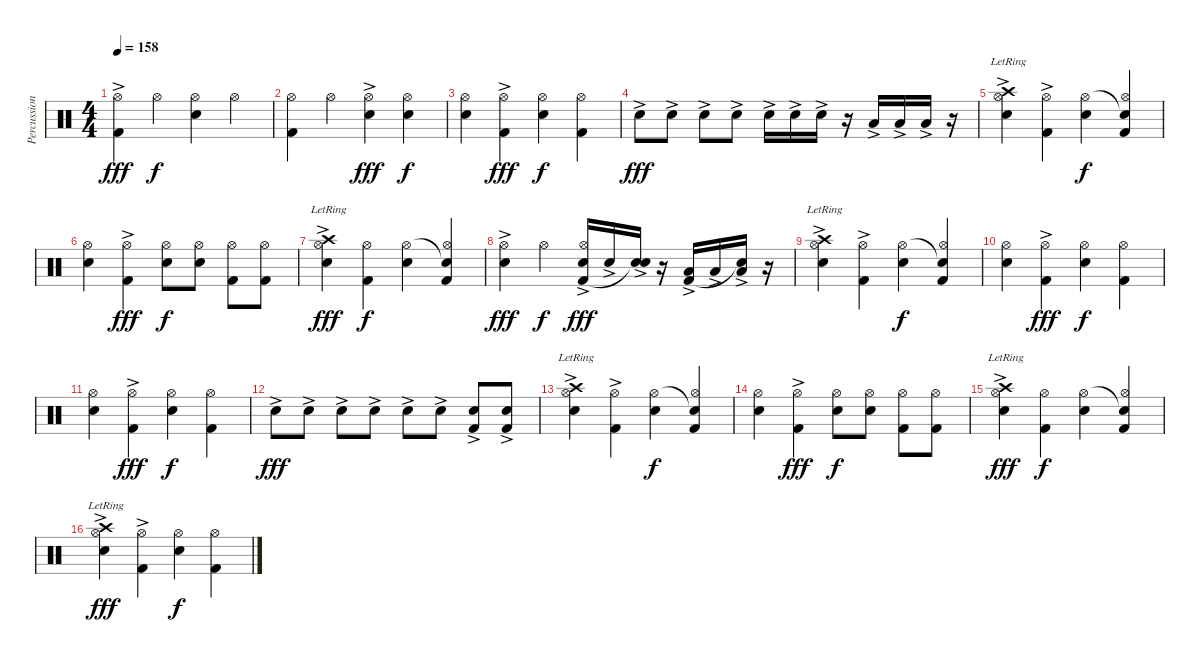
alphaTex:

\track ("Percussion" "Percussion") {instrument percussion}
\staff {score}
\articulation defaults
\ts (4 4)
\tempo 158
\clef neutral
\ks c
("Kick (hit) 2"{ac} "Hi-Hat (open)").4{dy fff} "Hi-Hat (open)".4{dy f} ("Snare (hit) 2" "Hi-Hat (open)").4 "Hi-Hat (open)".4 |
("Kick (hit) 2" "Hi-Hat (open)").4 "Hi-Hat (open)".4 ("Snare (hit) 2"{ac} "Hi-Hat (open)").4{dy fff} ("Snare (hit) 2" "Hi-Hat (open)").4{dy f} |
("Snare (hit) 2" "Hi-Hat (open)").4 ("Kick (hit) 2"{ac} "Hi-Hat (open)").4{dy fff} ("Snare (hit) 2" "Hi-Hat (open)").4{dy f} ("Kick (hit) 2" "Hi-Hat (open)").4 |
"Snare (hit) 2"{ac}.8{dy fff} "Snare (hit) 2"{ac}.8 "Snare (hit) 2"{ac}.8 "Snare (hit) 2"{ac}.8 "Electric Snare (hit)"{ac}.16 "Electric Snare (hit)"{ac}.16 "Electric Snare (hit)"{ac}.16 r.16 "Low Floor Tom (hit)"{ac}.16 "Low Floor Tom (hit)"{ac}.16 "Low Floor Tom (hit)"{ac}.16 r.16 |
("Snare (hit) 2" "Crash high (hit)"{ac lr} "Hi-Hat (open)").4 ("Kick (hit) 2"{ac} "Hi-Hat (open)").4 ("Snare (hit) 2" "Hi-Hat (open)").4{dy f} ("Kick (hit) 2" "Snare (hit)"{t} "Hi-Hat (open)").4 |
("Snare (hit) 2" "Hi-Hat (open)").4 ("Kick (hit) 2"{ac} "Hi-Hat (open)").4{dy fff} ("Snare (hit) 2" "Hi-Hat (open)").8{dy f} ("Snare (hit) 2" "Hi-Hat (open)").8 ("Kick (hit) 2" "Hi-Hat (open)").8 ("Kick (hit) 2" "Hi-Hat (open)").8 |
("Snare (hit) 2"{ac} "Crash high (hit)"{ac lr} "Hi-Hat (open)").4{dy fff} ("Kick (hit) 2" "Hi-Hat (open)").4{dy f} ("Snare (hit) 2" "Hi-Hat (open)").4 ("Kick (hit) 2" "Snare (hit)"{t} "Hi-Hat (open)").4 |
("Snare (hit) 2"{ac} "Hi-Hat (open)").4{dy fff} "Hi-Hat (open)".4{dy f} ("Snare (hit) 2"{ac} "Kick (hit) 2" "Hi-Hat (open)").16{dy fff} "Snare (hit) 2"{ac}.16 ("Snare (hit) 2"{ac} "Snare (hit)"{t}).16 r.16 ("Low Floor Tom (hit)"{ac} "Kick (hit) 2").16 "Low Floor Tom (hit)"{ac}.16 ("Low Floor Tom (hit)"{ac} "Snare (hit)"{t}).16 r.16 |
("Snare (hit) 2" "Crash high (hit)"{ac lr} "Hi-Hat (open)").4 ("Kick (hit) 2"{ac} "Hi-Hat (open)").4 ("Snare (hit) 2" "Hi-Hat (open)").4{dy f} ("Kick (hit) 2" "Snare (hit)"{t} "Hi-Hat (open)").4 |
("Snare (hit) 2" "Hi-Hat (open)").4 ("Kick (hit) 2"{ac} "Hi-Hat (open)").4{dy fff} ("Snare (hit) 2" "Hi-Hat (open)").4{dy f} ("Kick (hit) 2" "Hi-Hat (open)").4 |
("Snare (hit) 2" "Hi-Hat (open)").4 ("Kick (hit) 2"{ac} "Hi-Hat (open)").4{dy fff} ("Snare (hit) 2" "Hi-Hat (open)").4{dy f} ("Kick (hit) 2" "Hi-Hat (open)").4 |
"Snare (hit) 2"{ac}.8{dy fff} "Snare (hit) 2"{ac}.8 "Snare (hit) 2"{ac}.8 "Snare (hit) 2"{ac}.8 "Snare (hit) 2"{ac}.8 "Snare (hit) 2"{ac}.8 ("Snare (hit) 2"{ac} "Kick (hit) 2"{ac}).8 ("Snare (hit) 2"{ac} "Kick (hit) 2"{ac}).8 |
("Snare (hit) 2" "Crash high (hit)"{ac lr} "Hi-Hat (open)").4 ("Kick (hit) 2"{ac} "Hi-Hat (open)").4 ("Snare (hit) 2" "Hi-Hat (open)").4{dy f} ("Kick (hit) 2" "Snare (hit)"{t} "Hi-Hat (open)").4 |
("Snare (hit) 2" "Hi-Hat (open)").4 ("Kick (hit) 2"{ac} "Hi-Hat (open)").4{dy fff} ("Snare (hit) 2" "Hi-Hat (open)").8{dy f} ("Snare (hit) 2" "Hi-Hat (open)").8 ("Kick (hit) 2" "Hi-Hat (open)").8 ("Kick (hit) 2" "Hi-Hat (open)").8 |
("Snare (hit) 2"{ac} "Crash high (hit)"{ac lr} "Hi-Hat (open)").4{dy fff} ("Kick (hit) 2" "Hi-Hat (open)").4{dy f} ("Snare (hit) 2" "Hi-Hat (open)").4 ("Kick (hit) 2" "Snare (hit)"{t} "Hi-Hat (open)").4 |
("Snare (hit) 2" "Crash high (hit)"{ac lr} "Hi-Hat (open)").4{dy fff} ("Kick (hit) 2"{ac} "Hi-Hat (open)").4 ("Snare (hit) 2" "Hi-Hat (open)").4{dy f} ("Kick (hit) 2" "Hi-Hat (open)").4
